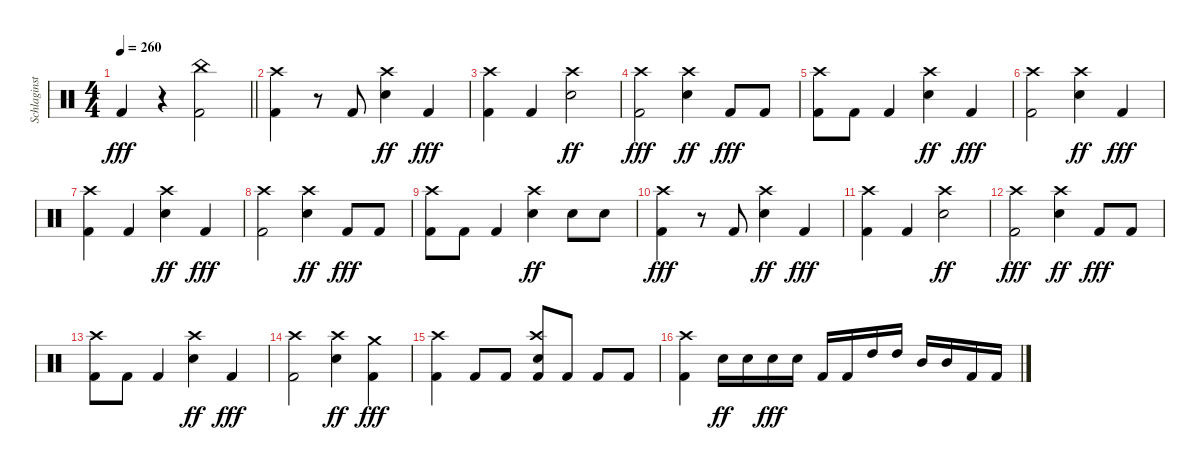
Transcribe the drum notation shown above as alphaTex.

\track ("Schlaginstrumente - Auswahl" "Schlaginst") {instrument percussion}
\staff {score}
\articulation defaults
\ts (4 4)
\tempo 260
\clef neutral
\barLineRight lightlight
\ks c "Kick (hit) 2".4{dy fff}
r.4 ("China (hit)" "Kick (hit) 2").2 |
("Crash high (hit)" "Kick (hit) 2").4 r.8 "Kick (hit) 2".8 ("Crash high (hit)" "Snare (hit) 2").4{dy ff} "Kick (hit) 2".4{dy fff} |
("Crash high (hit)" "Kick (hit) 2").4 "Kick (hit) 2".4 ("Crash high (hit)" "Snare (hit) 2").2{dy ff} |
("Crash high (hit)" "Kick (hit) 2").2{dy fff} ("Crash high (hit)" "Snare (hit) 2").4{dy ff} "Kick (hit) 2".8{dy fff} "Kick (hit) 2".8 |
("Crash high (hit)" "Kick (hit) 2").8 "Kick (hit) 2".8 "Kick (hit) 2".4 ("Crash high (hit)" "Snare (hit) 2").4{dy ff} "Kick (hit) 2".4{dy fff} |
("Crash high (hit)" "Kick (hit) 2").2 ("Crash high (hit)" "Snare (hit) 2").4{dy ff} "Kick (hit) 2".4{dy fff} |
("Crash high (hit)" "Kick (hit) 2").4 "Kick (hit) 2".4 ("Crash high (hit)" "Snare (hit) 2").4{dy ff} "Kick (hit) 2".4{dy fff} |
("Crash high (hit)" "Kick (hit) 2").2 ("Crash high (hit)" "Snare (hit) 2").4{dy ff} "Kick (hit) 2".8{dy fff} "Kick (hit) 2".8 |
("Crash high (hit)" "Kick (hit) 2").8 "Kick (hit) 2".8 "Kick (hit) 2".4 ("Crash high (hit)" "Snare (hit) 2").4{dy ff} "Snare (hit) 2".8 "Snare (hit) 2".8 |
("Crash high (hit)" "Kick (hit) 2").4{dy fff} r.8 "Kick (hit) 2".8 ("Crash high (hit)" "Snare (hit) 2").4{dy ff} "Kick (hit) 2".4{dy fff} |
("Crash high (hit)" "Kick (hit) 2").4 "Kick (hit) 2".4 ("Crash high (hit)" "Snare (hit) 2").2{dy ff} |
("Crash high (hit)" "Kick (hit) 2").2{dy fff} ("Crash high (hit)" "Snare (hit) 2").4{dy ff} "Kick (hit) 2".8{dy fff} "Kick (hit) 2".8 |
("Crash high (hit)" "Kick (hit) 2").8 "Kick (hit) 2".8 "Kick (hit) 2".4 ("Crash high (hit)" "Snare (hit) 2").4{dy ff} "Kick (hit) 2".4{dy fff} |
("Crash high (hit)" "Kick (hit) 2").2 ("Crash high (hit)" "Snare (hit) 2").4{dy ff} ("Crash medium (hit)" "Kick (hit) 2").4{dy fff} |
("Crash high (hit)" "Kick (hit) 2").4 "Kick (hit) 2".8 "Kick (hit) 2".8 ("Crash high (hit)" "Snare (hit) 2" "Kick (hit) 2").8 "Kick (hit) 2".8 "Kick (hit) 2".8 "Kick (hit) 2".8 |
("Crash high (hit)" "Kick (hit) 2").4 "Snare (hit) 2".16{dy ff} "Snare (hit) 2".16 "Snare (hit) 2".16{dy fff} "Snare (hit) 2".16 "Kick (hit) 2".16 "Kick (hit) 2".16 "High Tom (hit)".16 "High Tom (hit)".16 "Mid Tom (hit)".16 "Mid Tom (hit)".16 "Kick (hit) 2".16 "Kick (hit) 2".16
